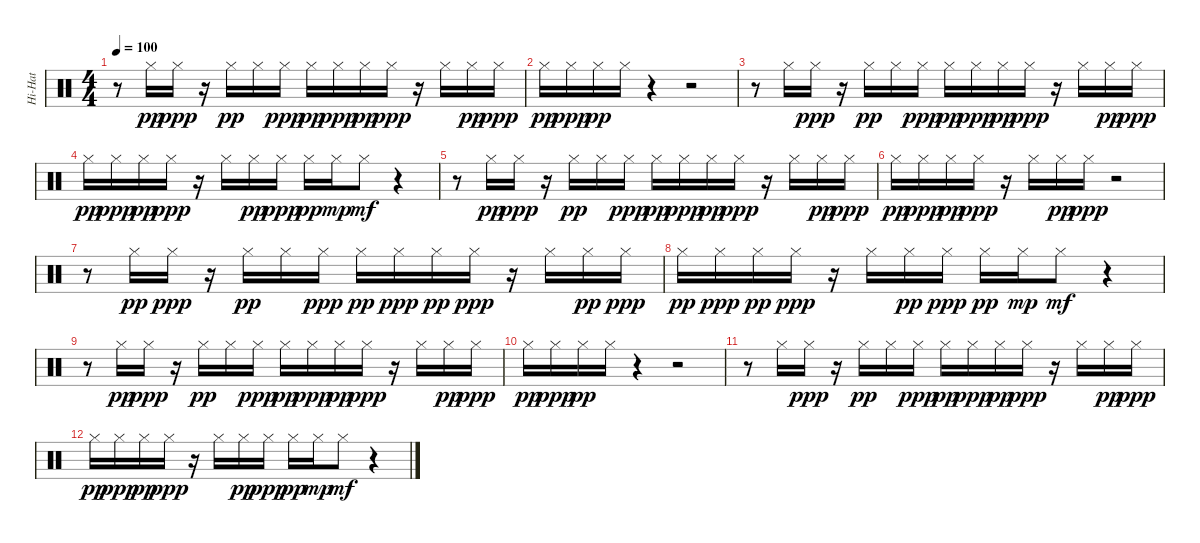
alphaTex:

\track ("Hi-Hat" "Hi-Hat") {instrument percussion}
\staff {score}
\articulation defaults
\ts (4 4)
\tempo 100
\clef neutral
\ks c
r.8{dy mf} "Hi-Hat (closed)".16{dy pp} "Hi-Hat (closed)".16{dy ppp} r.16 "Hi-Hat (closed)".16{dy pp} "Hi-Hat (closed)".16 "Hi-Hat (closed)".16{dy ppp} "Hi-Hat (closed)".16{dy pp} "Hi-Hat (closed)".16{dy ppp} "Hi-Hat (closed)".16{dy pp} "Hi-Hat (closed)".16{dy ppp} r.16 "Hi-Hat (closed)".16 "Hi-Hat (closed)".16{dy pp} "Hi-Hat (closed)".16{dy ppp} |
"Hi-Hat (closed)".16{dy pp} "Hi-Hat (closed)".16{dy ppp} "Hi-Hat (closed)".16{dy pp} "Hi-Hat (closed)".16 r.4 r.2 |
r.8 "Hi-Hat (closed)".16 "Hi-Hat (closed)".16{dy ppp} r.16 "Hi-Hat (closed)".16{dy pp} "Hi-Hat (closed)".16 "Hi-Hat (closed)".16{dy ppp} "Hi-Hat (closed)".16{dy pp} "Hi-Hat (closed)".16{dy ppp} "Hi-Hat (closed)".16{dy pp} "Hi-Hat (closed)".16{dy ppp} r.16 "Hi-Hat (closed)".16 "Hi-Hat (closed)".16{dy pp} "Hi-Hat (closed)".16{dy ppp} |
"Hi-Hat (closed)".16{dy pp} "Hi-Hat (closed)".16{dy ppp} "Hi-Hat (closed)".16{dy pp} "Hi-Hat (closed)".16{dy ppp} r.16 "Hi-Hat (closed)".16 "Hi-Hat (closed)".16{dy pp} "Hi-Hat (closed)".16{dy ppp} "Hi-Hat (closed)".16{dy pp} "Hi-Hat (closed)".16{dy mp} "Hi-Hat (closed)".8{dy mf} r.4 |
r.8 "Hi-Hat (closed)".16{dy pp} "Hi-Hat (closed)".16{dy ppp} r.16 "Hi-Hat (closed)".16{dy pp} "Hi-Hat (closed)".16 "Hi-Hat (closed)".16{dy ppp} "Hi-Hat (closed)".16{dy pp} "Hi-Hat (closed)".16{dy ppp} "Hi-Hat (closed)".16{dy pp} "Hi-Hat (closed)".16{dy ppp} r.16 "Hi-Hat (closed)".16 "Hi-Hat (closed)".16{dy pp} "Hi-Hat (closed)".16{dy ppp} |
"Hi-Hat (closed)".16{dy pp} "Hi-Hat (closed)".16{dy ppp} "Hi-Hat (closed)".16{dy pp} "Hi-Hat (closed)".16{dy ppp} r.16 "Hi-Hat (closed)".16 "Hi-Hat (closed)".16{dy pp} "Hi-Hat (closed)".16{dy ppp} r.2 |
r.8 "Hi-Hat (closed)".16{dy pp} "Hi-Hat (closed)".16{dy ppp} r.16 "Hi-Hat (closed)".16{dy pp} "Hi-Hat (closed)".16 "Hi-Hat (closed)".16{dy ppp} "Hi-Hat (closed)".16{dy pp} "Hi-Hat (closed)".16{dy ppp} "Hi-Hat (closed)".16{dy pp} "Hi-Hat (closed)".16{dy ppp} r.16 "Hi-Hat (closed)".16 "Hi-Hat (closed)".16{dy pp} "Hi-Hat (closed)".16{dy ppp} |
"Hi-Hat (closed)".16{dy pp} "Hi-Hat (closed)".16{dy ppp} "Hi-Hat (closed)".16{dy pp} "Hi-Hat (closed)".16{dy ppp} r.16 "Hi-Hat (closed)".16 "Hi-Hat (closed)".16{dy pp} "Hi-Hat (closed)".16{dy ppp} "Hi-Hat (closed)".16{dy pp} "Hi-Hat (closed)".16{dy mp} "Hi-Hat (closed)".8{dy mf} r.4 |
r.8 "Hi-Hat (closed)".16{dy pp} "Hi-Hat (closed)".16{dy ppp} r.16 "Hi-Hat (closed)".16{dy pp} "Hi-Hat (closed)".16 "Hi-Hat (closed)".16{dy ppp} "Hi-Hat (closed)".16{dy pp} "Hi-Hat (closed)".16{dy ppp} "Hi-Hat (closed)".16{dy pp} "Hi-Hat (closed)".16{dy ppp} r.16 "Hi-Hat (closed)".16 "Hi-Hat (closed)".16{dy pp} "Hi-Hat (closed)".16{dy ppp} |
"Hi-Hat (closed)".16{dy pp} "Hi-Hat (closed)".16{dy ppp} "Hi-Hat (closed)".16{dy pp} "Hi-Hat (closed)".16 r.4 r.2 |
r.8 "Hi-Hat (closed)".16 "Hi-Hat (closed)".16{dy ppp} r.16 "Hi-Hat (closed)".16{dy pp} "Hi-Hat (closed)".16 "Hi-Hat (closed)".16{dy ppp} "Hi-Hat (closed)".16{dy pp} "Hi-Hat (closed)".16{dy ppp} "Hi-Hat (closed)".16{dy pp} "Hi-Hat (closed)".16{dy ppp} r.16 "Hi-Hat (closed)".16 "Hi-Hat (closed)".16{dy pp} "Hi-Hat (closed)".16{dy ppp} |
"Hi-Hat (closed)".16{dy pp} "Hi-Hat (closed)".16{dy ppp} "Hi-Hat (closed)".16{dy pp} "Hi-Hat (closed)".16{dy ppp} r.16 "Hi-Hat (closed)".16 "Hi-Hat (closed)".16{dy pp} "Hi-Hat (closed)".16{dy ppp} "Hi-Hat (closed)".16{dy pp} "Hi-Hat (closed)".16{dy mp} "Hi-Hat (closed)".8{dy mf} r.4
